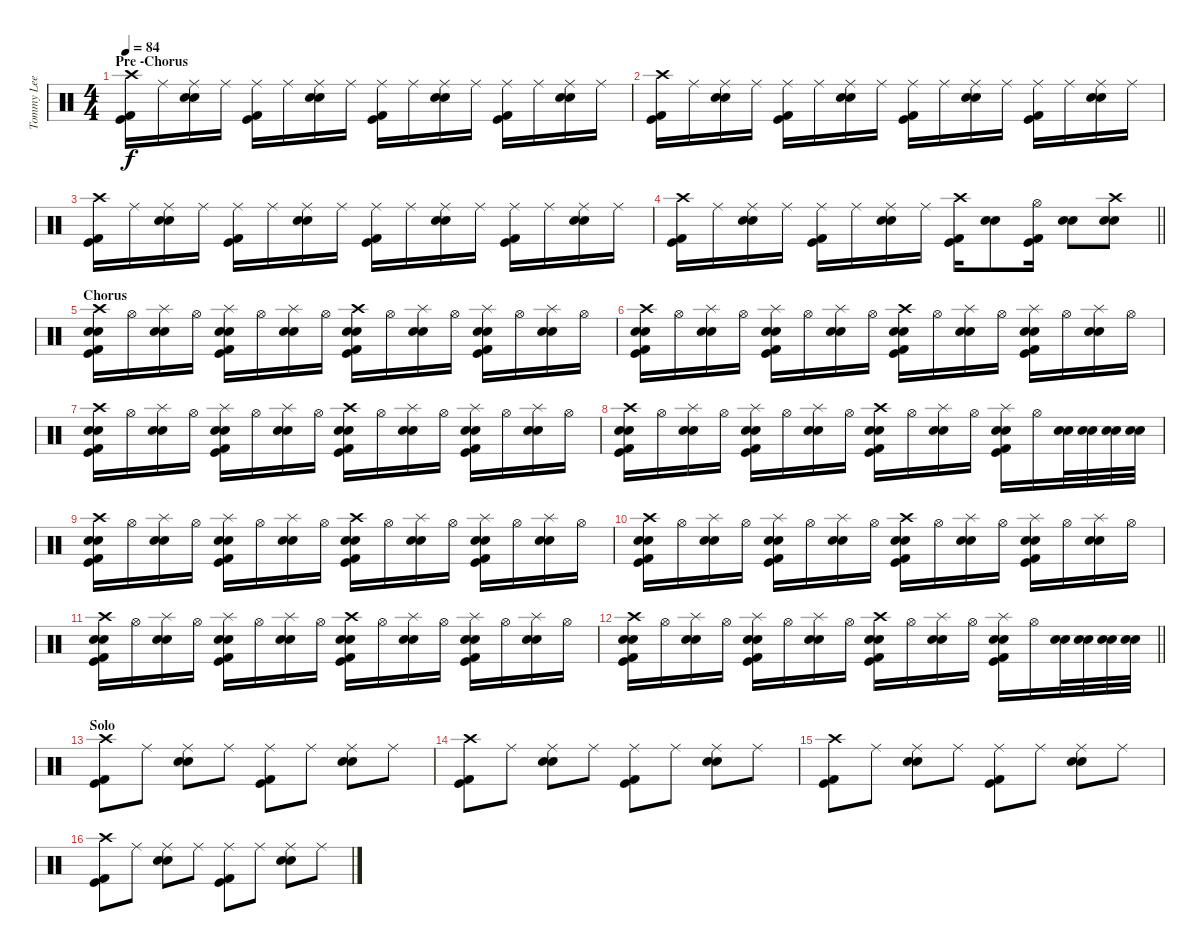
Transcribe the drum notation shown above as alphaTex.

\track ("Tommy Lee" "Tommy Lee") {instrument percussion}
\staff {score}
\articulation defaults
\ts (4 4)
\section ("" "Pre -Chorus")
\tempo 84
\clef neutral
\ks c
("Crash high (hit)" "Kick (hit) 2" "Kick (hit)").16{dy f} "Ride (middle)".16 ("Ride (middle)" "Electric Snare (hit)" "Snare (hit) 2").16 "Ride (middle)".16 ("Ride (middle)" "Kick (hit) 2" "Kick (hit)").16 "Ride (middle)".16 ("Ride (middle)" "Electric Snare (hit)" "Snare (hit) 2").16 "Ride (middle)".16 ("Ride (middle)" "Kick (hit) 2" "Kick (hit)").16 "Ride (middle)".16 ("Ride (middle)" "Electric Snare (hit)" "Snare (hit) 2").16 "Ride (middle)".16 ("Ride (middle)" "Kick (hit) 2" "Kick (hit)").16 "Ride (middle)".16 ("Ride (middle)" "Electric Snare (hit)" "Snare (hit) 2").16 "Ride (middle)".16 |
("Crash high (hit)" "Kick (hit) 2" "Kick (hit)").16 "Ride (middle)".16 ("Ride (middle)" "Electric Snare (hit)" "Snare (hit) 2").16 "Ride (middle)".16 ("Ride (middle)" "Kick (hit) 2" "Kick (hit)").16 "Ride (middle)".16 ("Ride (middle)" "Electric Snare (hit)" "Snare (hit) 2").16 "Ride (middle)".16 ("Ride (middle)" "Kick (hit) 2" "Kick (hit)").16 "Ride (middle)".16 ("Ride (middle)" "Electric Snare (hit)" "Snare (hit) 2").16 "Ride (middle)".16 ("Ride (middle)" "Kick (hit) 2" "Kick (hit)").16 "Ride (middle)".16 ("Ride (middle)" "Electric Snare (hit)" "Snare (hit) 2").16 "Ride (middle)".16 |
("Crash high (hit)" "Kick (hit) 2" "Kick (hit)").16 "Ride (middle)".16 ("Ride (middle)" "Electric Snare (hit)" "Snare (hit) 2").16 "Ride (middle)".16 ("Ride (middle)" "Kick (hit) 2" "Kick (hit)").16 "Ride (middle)".16 ("Ride (middle)" "Electric Snare (hit)" "Snare (hit) 2").16 "Ride (middle)".16 ("Ride (middle)" "Kick (hit) 2" "Kick (hit)").16 "Ride (middle)".16 ("Ride (middle)" "Electric Snare (hit)" "Snare (hit) 2").16 "Ride (middle)".16 ("Ride (middle)" "Kick (hit) 2" "Kick (hit)").16 "Ride (middle)".16 ("Ride (middle)" "Electric Snare (hit)" "Snare (hit) 2").16 "Ride (middle)".16 |
\barLineRight lightlight
("Crash high (hit)" "Kick (hit) 2" "Kick (hit)").16 "Ride (middle)".16 ("Ride (middle)" "Electric Snare (hit)" "Snare (hit) 2").16 "Ride (middle)".16 ("Ride (middle)" "Kick (hit) 2" "Kick (hit)").16 "Ride (middle)".16 ("Ride (middle)" "Electric Snare (hit)" "Snare (hit) 2").16 "Ride (middle)".16 ("Crash high (hit)" "Kick (hit) 2" "Kick (hit)").16 ("Electric Snare (hit)" "Snare (hit) 2").8 ("Hi-Hat (open)" "Kick (hit) 2" "Kick (hit)").16 ("Electric Snare (hit)" "Snare (hit) 2").8 ("Crash high (hit)" "Electric Snare (hit)" "Snare (hit) 2").8 |
\section ("" "Chorus")
("Crash high (hit)" "Electric Snare (hit)" "Snare (hit) 2" "Kick (hit) 2" "Kick (hit)").16 "Hi-Hat (open)".16 ("Splash (hit)" "Electric Snare (hit)" "Snare (hit) 2").16 "Hi-Hat (open)".16 ("Splash (hit)" "Electric Snare (hit)" "Snare (hit) 2" "Kick (hit) 2" "Kick (hit)").16 "Hi-Hat (open)".16 ("Splash (hit)" "Electric Snare (hit)" "Snare (hit) 2").16 "Hi-Hat (open)".16 ("Crash high (hit)" "Electric Snare (hit)" "Snare (hit) 2" "Kick (hit) 2" "Kick (hit)").16 "Hi-Hat (open)".16 ("Splash (hit)" "Electric Snare (hit)" "Snare (hit) 2").16 "Hi-Hat (open)".16 ("Splash (hit)" "Electric Snare (hit)" "Snare (hit) 2" "Kick (hit) 2" "Kick (hit)").16 "Hi-Hat (open)".16 ("Splash (hit)" "Electric Snare (hit)" "Snare (hit) 2").16 "Hi-Hat (open)".16 |
("Crash high (hit)" "Electric Snare (hit)" "Snare (hit) 2" "Kick (hit) 2" "Kick (hit)").16 "Hi-Hat (open)".16 ("Splash (hit)" "Electric Snare (hit)" "Snare (hit) 2").16 "Hi-Hat (open)".16 ("Splash (hit)" "Electric Snare (hit)" "Snare (hit) 2" "Kick (hit) 2" "Kick (hit)").16 "Hi-Hat (open)".16 ("Splash (hit)" "Electric Snare (hit)" "Snare (hit) 2").16 "Hi-Hat (open)".16 ("Crash high (hit)" "Electric Snare (hit)" "Snare (hit) 2" "Kick (hit) 2" "Kick (hit)").16 "Hi-Hat (open)".16 ("Splash (hit)" "Electric Snare (hit)" "Snare (hit) 2").16 "Hi-Hat (open)".16 ("Splash (hit)" "Electric Snare (hit)" "Snare (hit) 2" "Kick (hit) 2" "Kick (hit)").16 "Hi-Hat (open)".16 ("Splash (hit)" "Electric Snare (hit)" "Snare (hit) 2").16 "Hi-Hat (open)".16 |
("Crash high (hit)" "Electric Snare (hit)" "Snare (hit) 2" "Kick (hit) 2" "Kick (hit)").16 "Hi-Hat (open)".16 ("Splash (hit)" "Electric Snare (hit)" "Snare (hit) 2").16 "Hi-Hat (open)".16 ("Splash (hit)" "Electric Snare (hit)" "Snare (hit) 2" "Kick (hit) 2" "Kick (hit)").16 "Hi-Hat (open)".16 ("Splash (hit)" "Electric Snare (hit)" "Snare (hit) 2").16 "Hi-Hat (open)".16 ("Crash high (hit)" "Electric Snare (hit)" "Snare (hit) 2" "Kick (hit) 2" "Kick (hit)").16 "Hi-Hat (open)".16 ("Splash (hit)" "Electric Snare (hit)" "Snare (hit) 2").16 "Hi-Hat (open)".16 ("Splash (hit)" "Electric Snare (hit)" "Snare (hit) 2" "Kick (hit) 2" "Kick (hit)").16 "Hi-Hat (open)".16 ("Splash (hit)" "Electric Snare (hit)" "Snare (hit) 2").16 "Hi-Hat (open)".16 |
("Crash high (hit)" "Electric Snare (hit)" "Snare (hit) 2" "Kick (hit) 2" "Kick (hit)").16 "Hi-Hat (open)".16 ("Splash (hit)" "Electric Snare (hit)" "Snare (hit) 2").16 "Hi-Hat (open)".16 ("Splash (hit)" "Electric Snare (hit)" "Snare (hit) 2" "Kick (hit) 2" "Kick (hit)").16 "Hi-Hat (open)".16 ("Splash (hit)" "Electric Snare (hit)" "Snare (hit) 2").16 "Hi-Hat (open)".16 ("Crash high (hit)" "Electric Snare (hit)" "Snare (hit) 2" "Kick (hit) 2" "Kick (hit)").16 "Hi-Hat (open)".16 ("Splash (hit)" "Electric Snare (hit)" "Snare (hit) 2").16 "Hi-Hat (open)".16 ("Splash (hit)" "Electric Snare (hit)" "Snare (hit) 2" "Kick (hit) 2" "Kick (hit)").16 "Hi-Hat (open)".16 ("Electric Snare (hit)" "Snare (hit) 2").32 ("Electric Snare (hit)" "Snare (hit) 2").32 ("Electric Snare (hit)" "Snare (hit) 2").32 ("Electric Snare (hit)" "Snare (hit) 2").32 |
("Crash high (hit)" "Electric Snare (hit)" "Snare (hit) 2" "Kick (hit) 2" "Kick (hit)").16 "Hi-Hat (open)".16 ("Splash (hit)" "Electric Snare (hit)" "Snare (hit) 2").16 "Hi-Hat (open)".16 ("Splash (hit)" "Electric Snare (hit)" "Snare (hit) 2" "Kick (hit) 2" "Kick (hit)").16 "Hi-Hat (open)".16 ("Splash (hit)" "Electric Snare (hit)" "Snare (hit) 2").16 "Hi-Hat (open)".16 ("Crash high (hit)" "Electric Snare (hit)" "Snare (hit) 2" "Kick (hit) 2" "Kick (hit)").16 "Hi-Hat (open)".16 ("Splash (hit)" "Electric Snare (hit)" "Snare (hit) 2").16 "Hi-Hat (open)".16 ("Splash (hit)" "Electric Snare (hit)" "Snare (hit) 2" "Kick (hit) 2" "Kick (hit)").16 "Hi-Hat (open)".16 ("Splash (hit)" "Electric Snare (hit)" "Snare (hit) 2").16 "Hi-Hat (open)".16 |
("Crash high (hit)" "Electric Snare (hit)" "Snare (hit) 2" "Kick (hit) 2" "Kick (hit)").16 "Hi-Hat (open)".16 ("Splash (hit)" "Electric Snare (hit)" "Snare (hit) 2").16 "Hi-Hat (open)".16 ("Splash (hit)" "Electric Snare (hit)" "Snare (hit) 2" "Kick (hit) 2" "Kick (hit)").16 "Hi-Hat (open)".16 ("Splash (hit)" "Electric Snare (hit)" "Snare (hit) 2").16 "Hi-Hat (open)".16 ("Crash high (hit)" "Electric Snare (hit)" "Snare (hit) 2" "Kick (hit) 2" "Kick (hit)").16 "Hi-Hat (open)".16 ("Splash (hit)" "Electric Snare (hit)" "Snare (hit) 2").16 "Hi-Hat (open)".16 ("Splash (hit)" "Electric Snare (hit)" "Snare (hit) 2" "Kick (hit) 2" "Kick (hit)").16 "Hi-Hat (open)".16 ("Splash (hit)" "Electric Snare (hit)" "Snare (hit) 2").16 "Hi-Hat (open)".16 |
("Crash high (hit)" "Electric Snare (hit)" "Snare (hit) 2" "Kick (hit) 2" "Kick (hit)").16 "Hi-Hat (open)".16 ("Splash (hit)" "Electric Snare (hit)" "Snare (hit) 2").16 "Hi-Hat (open)".16 ("Splash (hit)" "Electric Snare (hit)" "Snare (hit) 2" "Kick (hit) 2" "Kick (hit)").16 "Hi-Hat (open)".16 ("Splash (hit)" "Electric Snare (hit)" "Snare (hit) 2").16 "Hi-Hat (open)".16 ("Crash high (hit)" "Electric Snare (hit)" "Snare (hit) 2" "Kick (hit) 2" "Kick (hit)").16 "Hi-Hat (open)".16 ("Splash (hit)" "Electric Snare (hit)" "Snare (hit) 2").16 "Hi-Hat (open)".16 ("Splash (hit)" "Electric Snare (hit)" "Snare (hit) 2" "Kick (hit) 2" "Kick (hit)").16 "Hi-Hat (open)".16 ("Splash (hit)" "Electric Snare (hit)" "Snare (hit) 2").16 "Hi-Hat (open)".16 |
\barLineRight lightlight
("Crash high (hit)" "Electric Snare (hit)" "Snare (hit) 2" "Kick (hit) 2" "Kick (hit)").16 "Hi-Hat (open)".16 ("Splash (hit)" "Electric Snare (hit)" "Snare (hit) 2").16 "Hi-Hat (open)".16 ("Splash (hit)" "Electric Snare (hit)" "Snare (hit) 2" "Kick (hit) 2" "Kick (hit)").16 "Hi-Hat (open)".16 ("Splash (hit)" "Electric Snare (hit)" "Snare (hit) 2").16 "Hi-Hat (open)".16 ("Crash high (hit)" "Electric Snare (hit)" "Snare (hit) 2" "Kick (hit) 2" "Kick (hit)").16 "Hi-Hat (open)".16 ("Splash (hit)" "Electric Snare (hit)" "Snare (hit) 2").16 "Hi-Hat (open)".16 ("Splash (hit)" "Electric Snare (hit)" "Snare (hit) 2" "Kick (hit) 2" "Kick (hit)").16 "Hi-Hat (open)".16 ("Electric Snare (hit)" "Snare (hit) 2").32 ("Electric Snare (hit)" "Snare (hit) 2").32 ("Electric Snare (hit)" "Snare (hit) 2").32 ("Electric Snare (hit)" "Snare (hit) 2").32 |
\section ("" "Solo")
("Crash high (hit)" "Kick (hit) 2" "Kick (hit)").8 "Ride (middle)".8 ("Ride (middle)" "Electric Snare (hit)" "Snare (hit) 2").8 "Ride (middle)".8 ("Ride (middle)" "Kick (hit) 2" "Kick (hit)").8 "Ride (middle)".8 ("Ride (middle)" "Electric Snare (hit)" "Snare (hit) 2").8 "Ride (middle)".8 |
("Crash high (hit)" "Kick (hit) 2" "Kick (hit)").8 "Ride (middle)".8 ("Ride (middle)" "Electric Snare (hit)" "Snare (hit) 2").8 "Ride (middle)".8 ("Ride (middle)" "Kick (hit) 2" "Kick (hit)").8 "Ride (middle)".8 ("Ride (middle)" "Electric Snare (hit)" "Snare (hit) 2").8 "Ride (middle)".8 |
("Crash high (hit)" "Kick (hit) 2" "Kick (hit)").8 "Ride (middle)".8 ("Ride (middle)" "Electric Snare (hit)" "Snare (hit) 2").8 "Ride (middle)".8 ("Ride (middle)" "Kick (hit) 2" "Kick (hit)").8 "Ride (middle)".8 ("Ride (middle)" "Electric Snare (hit)" "Snare (hit) 2").8 "Ride (middle)".8 |
("Crash high (hit)" "Kick (hit) 2" "Kick (hit)").8 "Ride (middle)".8 ("Ride (middle)" "Electric Snare (hit)" "Snare (hit) 2").8 "Ride (middle)".8 ("Ride (middle)" "Kick (hit) 2" "Kick (hit)").8 "Ride (middle)".8 ("Ride (middle)" "Electric Snare (hit)" "Snare (hit) 2").8 "Ride (middle)".8
